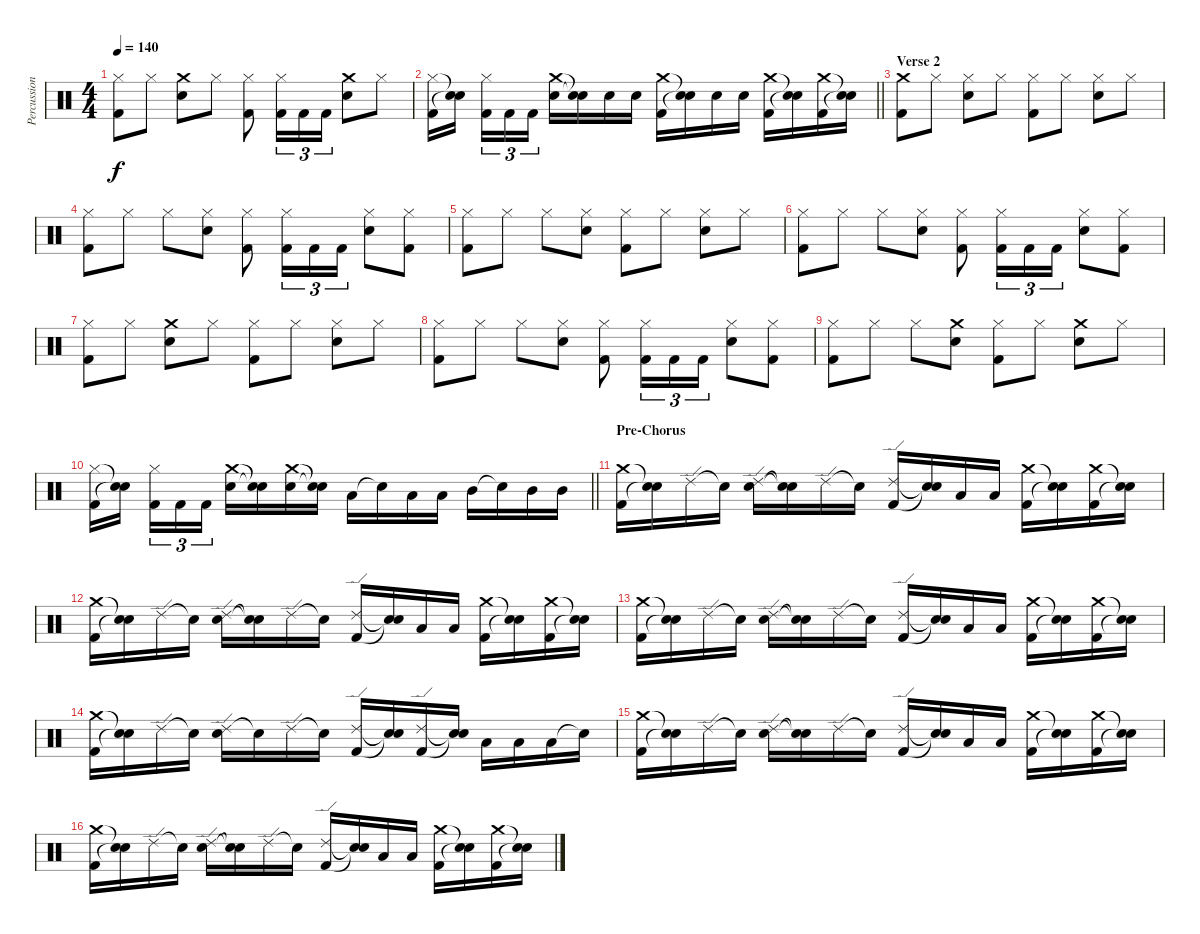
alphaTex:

\track ("Percussion" "Percussion") {instrument percussion}
\staff {score}
\articulation defaults
\ts (4 4)
\tempo 140
\clef neutral
\ks c
("Hi-Hat (closed)" "Kick (hit) 2").8{dy f} "Hi-Hat (closed)".8 ("Crash medium (hit)" "Snare (hit) 2").8 "Hi-Hat (closed)".8 ("Hi-Hat (closed)" "Kick (hit) 2").8 ("Hi-Hat (closed)" "Kick (hit) 2").16{tu (3 2)} "Kick (hit) 2".16{tu (3 2)} "Kick (hit) 2".16{tu (3 2)} ("Crash medium (hit)" "Snare (hit) 2").8 "Hi-Hat (closed)".8 |
\barLineRight lightlight
("Hi-Hat (closed)" "Kick (hit) 2").16 ("Snare (hit)"{t} "Snare (hit)"{t}).16{beam splitsecondary} ("Hi-Hat (closed)" "Kick (hit) 2").16{tu (3 2)} "Kick (hit) 2".16{tu (3 2)} "Kick (hit) 2".16{tu (3 2)} ("Crash medium (hit)" "Snare (hit) 2").16 ("Snare (hit)"{t} "Snare (hit)"{t}).16 "Snare (hit) 2".16 "Snare (hit) 2".16 ("Crash medium (hit)" "Kick (hit) 2").16 ("Snare (hit)"{t} "Snare (hit)"{t}).16 "Snare (hit) 2".16 "Snare (hit) 2".16 ("Crash medium (hit)" "Kick (hit) 2").16 ("Snare (hit)"{t} "Snare (hit)"{t}).16 ("Crash medium (hit)" "Kick (hit) 2").16 ("Snare (hit)"{t} "Snare (hit)"{t}).16 |
\section ("" "Verse 2")
("Crash medium (hit)" "Kick (hit) 2").8 "Hi-Hat (closed)".8 ("Hi-Hat (closed)" "Snare (hit) 2").8 "Hi-Hat (closed)".8 ("Hi-Hat (closed)" "Kick (hit) 2").8 "Hi-Hat (closed)".8 ("Hi-Hat (closed)" "Snare (hit) 2").8 "Hi-Hat (closed)".8 |
("Hi-Hat (closed)" "Kick (hit) 2").8 "Hi-Hat (closed)".8 "Hi-Hat (closed)".8 ("Hi-Hat (closed)" "Snare (hit) 2").8 ("Hi-Hat (closed)" "Kick (hit) 2").8 ("Hi-Hat (closed)" "Kick (hit) 2").16{tu (3 2)} "Kick (hit) 2".16{tu (3 2)} "Kick (hit) 2".16{tu (3 2)} ("Hi-Hat (closed)" "Snare (hit) 2").8 ("Hi-Hat (closed)" "Kick (hit) 2").8 |
("Hi-Hat (closed)" "Kick (hit) 2").8 "Hi-Hat (closed)".8 "Hi-Hat (closed)".8 ("Hi-Hat (closed)" "Snare (hit) 2").8 ("Hi-Hat (closed)" "Kick (hit) 2").8 "Hi-Hat (closed)".8 ("Hi-Hat (closed)" "Snare (hit) 2").8 "Hi-Hat (closed)".8 |
("Hi-Hat (closed)" "Kick (hit) 2").8 "Hi-Hat (closed)".8 "Hi-Hat (closed)".8 ("Hi-Hat (closed)" "Snare (hit) 2").8 ("Hi-Hat (closed)" "Kick (hit) 2").8 ("Hi-Hat (closed)" "Kick (hit) 2").16{tu (3 2)} "Kick (hit) 2".16{tu (3 2)} "Kick (hit) 2".16{tu (3 2)} ("Hi-Hat (closed)" "Snare (hit) 2").8 ("Hi-Hat (closed)" "Kick (hit) 2").8 |
("Hi-Hat (closed)" "Kick (hit) 2").8 "Hi-Hat (closed)".8 ("Crash medium (hit)" "Snare (hit) 2").8 "Hi-Hat (closed)".8 ("Hi-Hat (closed)" "Kick (hit) 2").8 "Hi-Hat (closed)".8 ("Hi-Hat (closed)" "Snare (hit) 2").8 "Hi-Hat (closed)".8 |
("Hi-Hat (closed)" "Kick (hit) 2").8 "Hi-Hat (closed)".8 "Hi-Hat (closed)".8 ("Hi-Hat (closed)" "Snare (hit) 2").8 ("Hi-Hat (closed)" "Kick (hit) 2").8 ("Hi-Hat (closed)" "Kick (hit) 2").16{tu (3 2)} "Kick (hit) 2".16{tu (3 2)} "Kick (hit) 2".16{tu (3 2)} ("Hi-Hat (closed)" "Snare (hit) 2").8 ("Hi-Hat (closed)" "Kick (hit) 2").8 |
("Hi-Hat (closed)" "Kick (hit) 2").8 "Hi-Hat (closed)".8 "Hi-Hat (closed)".8 ("Crash medium (hit)" "Snare (hit) 2").8 ("Hi-Hat (closed)" "Kick (hit) 2").8 "Hi-Hat (closed)".8 ("Crash medium (hit)" "Snare (hit) 2").8 "Hi-Hat (closed)".8 |
\barLineRight lightlight
("Hi-Hat (closed)" "Kick (hit) 2").16 ("Snare (hit)"{t} "Snare (hit)"{t}).16{beam splitsecondary} ("Hi-Hat (closed)" "Kick (hit) 2").16{tu (3 2)} "Kick (hit) 2".16{tu (3 2)} "Kick (hit) 2".16{tu (3 2)} ("Crash medium (hit)" "Snare (hit) 2").16 ("Snare (hit)"{t} "Snare (hit)"{t}).16 ("Crash medium (hit)" "Snare (hit) 2").16 ("Snare (hit)"{t} "Snare (hit)"{t}).16 "Low Tom (hit)".16 "Snare (hit)"{t}.16 "Low Tom (hit)".16 "Low Tom (hit)".16 "Mid Tom (hit)".16 "Snare (hit)"{t}.16 "Mid Tom (hit)".16 "Mid Tom (hit)".16 |
\section ("" "Pre-Chorus")
("Crash medium (hit)" "Kick (hit) 2").16 ("Snare (hit)"{t} "Snare (hit)"{t}).16 "Ride (edge) 2".16 "Snare (hit)"{t}.16 ("Ride (edge) 2" "Snare (hit) 2").16 ("Snare (hit)"{t} "Snare (hit)"{t}).16 "Ride (edge) 2".16 "Snare (hit)"{t}.16 ("Ride (edge) 2" "Kick (hit) 2").16 ("Snare (hit)"{t} "Snare (hit)"{t}).16 "Low Tom (hit)".16 "Low Tom (hit)".16 ("Crash medium (hit)" "Kick (hit) 2").16 ("Snare (hit)"{t} "Snare (hit)"{t}).16 ("Crash medium (hit)" "Kick (hit) 2").16 ("Snare (hit)"{t} "Snare (hit)"{t}).16 |
("Crash medium (hit)" "Kick (hit) 2").16 ("Snare (hit)"{t} "Snare (hit)"{t}).16 "Ride (edge) 2".16 "Snare (hit)"{t}.16 ("Ride (edge) 2" "Snare (hit) 2").16 ("Snare (hit)"{t} "Snare (hit)"{t}).16 "Ride (edge) 2".16 "Snare (hit)"{t}.16 ("Ride (edge) 2" "Kick (hit) 2").16 ("Snare (hit)"{t} "Snare (hit)"{t}).16 "Low Tom (hit)".16 "Low Tom (hit)".16 ("Crash medium (hit)" "Kick (hit) 2").16 ("Snare (hit)"{t} "Snare (hit)"{t}).16 ("Crash medium (hit)" "Kick (hit) 2").16 ("Snare (hit)"{t} "Snare (hit)"{t}).16 |
("Crash medium (hit)" "Kick (hit) 2").16 ("Snare (hit)"{t} "Snare (hit)"{t}).16 "Ride (edge) 2".16 "Snare (hit)"{t}.16 ("Ride (edge) 2" "Snare (hit) 2").16 ("Snare (hit)"{t} "Snare (hit)"{t}).16 "Ride (edge) 2".16 "Snare (hit)"{t}.16 ("Ride (edge) 2" "Kick (hit) 2").16 ("Snare (hit)"{t} "Snare (hit)"{t}).16 "Low Tom (hit)".16 "Low Tom (hit)".16 ("Crash medium (hit)" "Kick (hit) 2").16 ("Snare (hit)"{t} "Snare (hit)"{t}).16 ("Crash medium (hit)" "Kick (hit) 2").16 ("Snare (hit)"{t} "Snare (hit)"{t}).16 |
("Crash medium (hit)" "Kick (hit) 2").16 ("Snare (hit)"{t} "Snare (hit)"{t}).16 "Ride (edge) 2".16 "Snare (hit)"{t}.16 ("Ride (edge) 2" "Snare (hit) 2").16 "Snare (hit)"{t}.16 "Ride (edge) 2".16 "Snare (hit)"{t}.16 ("Ride (edge) 2" "Kick (hit) 2").16 ("Snare (hit)"{t} "Snare (hit)"{t}).16 ("Ride (edge) 2" "Kick (hit) 2").16 ("Snare (hit)"{t} "Snare (hit)"{t}).16 "Low Tom (hit)".16 "Low Tom (hit)".16 "Low Tom (hit)".16 "Snare (hit)"{t}.16 |
("Crash medium (hit)" "Kick (hit) 2").16 ("Snare (hit)"{t} "Snare (hit)"{t}).16 "Ride (edge) 2".16 "Snare (hit)"{t}.16 ("Ride (edge) 2" "Snare (hit) 2").16 ("Snare (hit)"{t} "Snare (hit)"{t}).16 "Ride (edge) 2".16 "Snare (hit)"{t}.16 ("Ride (edge) 2" "Kick (hit) 2").16 ("Snare (hit)"{t} "Snare (hit)"{t}).16 "Low Tom (hit)".16 "Low Tom (hit)".16 ("Crash medium (hit)" "Kick (hit) 2").16 ("Snare (hit)"{t} "Snare (hit)"{t}).16 ("Crash medium (hit)" "Kick (hit) 2").16 ("Snare (hit)"{t} "Snare (hit)"{t}).16 |
("Crash medium (hit)" "Kick (hit) 2").16 ("Snare (hit)"{t} "Snare (hit)"{t}).16 "Ride (edge) 2".16 "Snare (hit)"{t}.16 ("Ride (edge) 2" "Snare (hit) 2").16 ("Snare (hit)"{t} "Snare (hit)"{t}).16 "Ride (edge) 2".16 "Snare (hit)"{t}.16 ("Ride (edge) 2" "Kick (hit) 2").16 ("Snare (hit)"{t} "Snare (hit)"{t}).16 "Low Tom (hit)".16 "Low Tom (hit)".16 ("Crash medium (hit)" "Kick (hit) 2").16 ("Snare (hit)"{t} "Snare (hit)"{t}).16 ("Crash medium (hit)" "Kick (hit) 2").16 ("Snare (hit)"{t} "Snare (hit)"{t}).16
